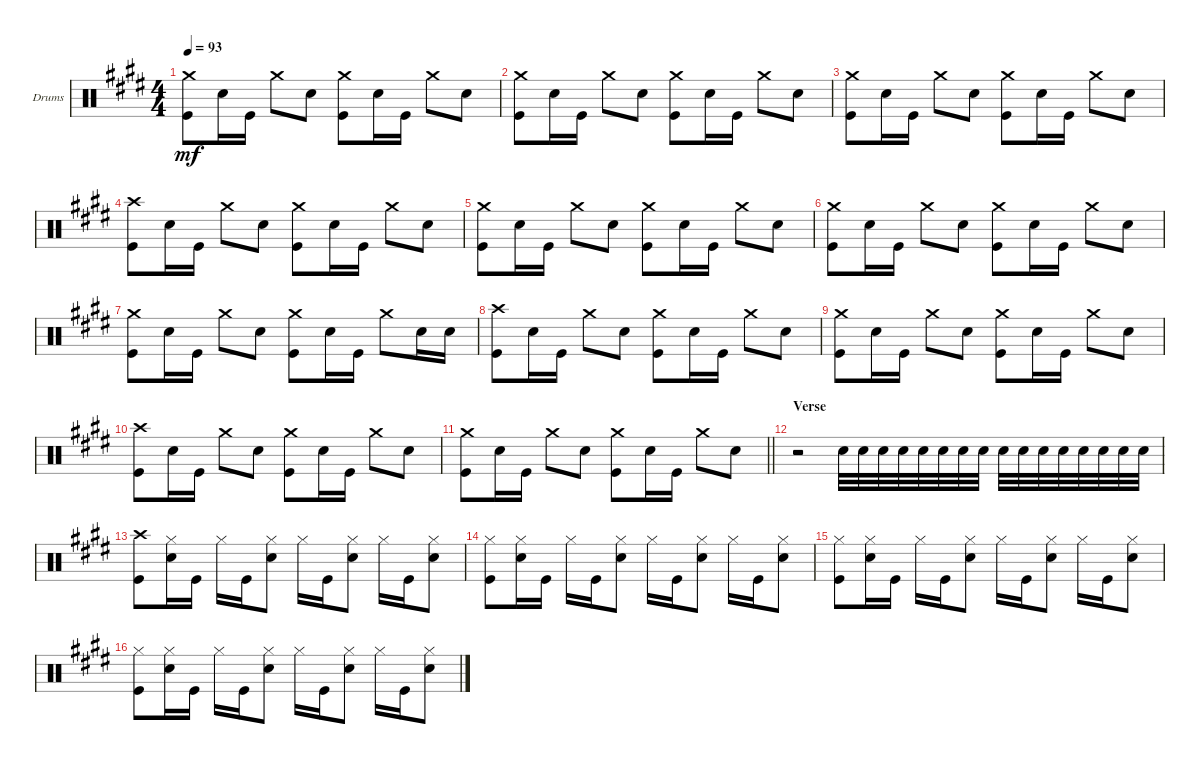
\defaultSystemsLayout 4
\bracketExtendMode groupsimilarinstruments
\firstSystemTrackNameOrientation horizontal
\otherSystemsTrackNameOrientation horizontal
\track ("Drumkit" "Drums") {instrument percussion}
\staff {score}
\articulation defaults
\ts (4 4)
\tempo 93
\clef neutral
\ks e
("Kick (hit)" "Crash medium (hit)").8{dy mf} "Snare (hit) 2".16 "Kick (hit)".16 "Crash medium (hit)".8 "Snare (hit) 2".8 ("Kick (hit)" "Crash medium (hit)").8 "Snare (hit) 2".16 "Kick (hit)".16 "Crash medium (hit)".8 "Snare (hit) 2".8 |
("Kick (hit)" "Crash medium (hit)").8 "Snare (hit) 2".16 "Kick (hit)".16 "Crash medium (hit)".8 "Snare (hit) 2".8 ("Kick (hit)" "Crash medium (hit)").8 "Snare (hit) 2".16 "Kick (hit)".16 "Crash medium (hit)".8 "Snare (hit) 2".8 |
("Kick (hit)" "Crash medium (hit)").8 "Snare (hit) 2".16 "Kick (hit)".16 "Crash medium (hit)".8 "Snare (hit) 2".8 ("Kick (hit)" "Crash medium (hit)").8 "Snare (hit) 2".16 "Kick (hit)".16 "Crash medium (hit)".8 "Snare (hit) 2".8 |
("Crash high (hit)" "Kick (hit)").8 "Snare (hit) 2".16 "Kick (hit)".16 "Crash medium (hit)".8 "Snare (hit) 2".8 ("Kick (hit)" "Crash medium (hit)").8 "Snare (hit) 2".16 "Kick (hit)".16 "Crash medium (hit)".8 "Snare (hit) 2".8 |
("Kick (hit)" "Crash medium (hit)").8 "Snare (hit) 2".16 "Kick (hit)".16 "Crash medium (hit)".8 "Snare (hit) 2".8 ("Kick (hit)" "Crash medium (hit)").8 "Snare (hit) 2".16 "Kick (hit)".16 "Crash medium (hit)".8 "Snare (hit) 2".8 |
("Kick (hit)" "Crash medium (hit)").8 "Snare (hit) 2".16 "Kick (hit)".16 "Crash medium (hit)".8 "Snare (hit) 2".8 ("Kick (hit)" "Crash medium (hit)").8 "Snare (hit) 2".16 "Kick (hit)".16 "Crash medium (hit)".8 "Snare (hit) 2".8 |
("Kick (hit)" "Crash medium (hit)").8 "Snare (hit) 2".16 "Kick (hit)".16 "Crash medium (hit)".8 "Snare (hit) 2".8 ("Kick (hit)" "Crash medium (hit)").8 "Snare (hit) 2".16 "Kick (hit)".16 "Crash medium (hit)".8 "Snare (hit) 2".16 "Snare (hit) 2".16 |
("Crash high (hit)" "Kick (hit)").8 "Snare (hit) 2".16 "Kick (hit)".16 "Crash medium (hit)".8 "Snare (hit) 2".8 ("Kick (hit)" "Crash medium (hit)").8 "Snare (hit) 2".16 "Kick (hit)".16 "Crash medium (hit)".8 "Snare (hit) 2".8 |
("Kick (hit)" "Crash medium (hit)").8 "Snare (hit) 2".16 "Kick (hit)".16 "Crash medium (hit)".8 "Snare (hit) 2".8 ("Kick (hit)" "Crash medium (hit)").8 "Snare (hit) 2".16 "Kick (hit)".16 "Crash medium (hit)".8 "Snare (hit) 2".8 |
("Crash high (hit)" "Kick (hit)").8 "Snare (hit) 2".16 "Kick (hit)".16 "Crash medium (hit)".8 "Snare (hit) 2".8 ("Kick (hit)" "Crash medium (hit)").8 "Snare (hit) 2".16 "Kick (hit)".16 "Crash medium (hit)".8 "Snare (hit) 2".8 |
\barLineRight lightlight
("Kick (hit)" "Crash medium (hit)").8 "Snare (hit) 2".16 "Kick (hit)".16 "Crash medium (hit)".8 "Snare (hit) 2".8 ("Kick (hit)" "Crash medium (hit)").8 "Snare (hit) 2".16 "Kick (hit)".16 "Crash medium (hit)".8 "Snare (hit) 2".8 |
\section ("" "Verse")
r.2 "Snare (hit) 2".32 "Snare (hit) 2".32 "Snare (hit) 2".32 "Snare (hit) 2".32 "Snare (hit) 2".32 "Snare (hit) 2".32 "Snare (hit) 2".32 "Snare (hit) 2".32 "Snare (hit) 2".32 "Snare (hit) 2".32 "Snare (hit) 2".32 "Snare (hit) 2".32 "Snare (hit) 2".32 "Snare (hit) 2".32 "Snare (hit) 2".32 "Snare (hit) 2".32 |
("Kick (hit)" "Crash high (hit)").8 ("Snare (hit) 2" "Hi-Hat (closed)").16 "Kick (hit)".16 "Hi-Hat (closed)".16 "Kick (hit)".16 ("Snare (hit) 2" "Hi-Hat (closed)").8 "Hi-Hat (closed)".16 "Kick (hit)".16 ("Snare (hit) 2" "Hi-Hat (closed)").8 "Hi-Hat (closed)".16 "Kick (hit)".16 ("Snare (hit) 2" "Hi-Hat (closed)").8 |
("Kick (hit)" "Hi-Hat (closed)").8 ("Snare (hit) 2" "Hi-Hat (closed)").16 "Kick (hit)".16 "Hi-Hat (closed)".16 "Kick (hit)".16 ("Snare (hit) 2" "Hi-Hat (closed)").8 "Hi-Hat (closed)".16 "Kick (hit)".16 ("Snare (hit) 2" "Hi-Hat (closed)").8 "Hi-Hat (closed)".16 "Kick (hit)".16 ("Snare (hit) 2" "Hi-Hat (closed)").8 |
("Kick (hit)" "Hi-Hat (closed)").8 ("Snare (hit) 2" "Hi-Hat (closed)").16 "Kick (hit)".16 "Hi-Hat (closed)".16 "Kick (hit)".16 ("Snare (hit) 2" "Hi-Hat (closed)").8 "Hi-Hat (closed)".16 "Kick (hit)".16 ("Snare (hit) 2" "Hi-Hat (closed)").8 "Hi-Hat (closed)".16 "Kick (hit)".16 ("Snare (hit) 2" "Hi-Hat (closed)").8 |
("Kick (hit)" "Hi-Hat (closed)").8 ("Snare (hit) 2" "Hi-Hat (closed)").16 "Kick (hit)".16 "Hi-Hat (closed)".16 "Kick (hit)".16 ("Snare (hit) 2" "Hi-Hat (closed)").8 "Hi-Hat (closed)".16 "Kick (hit)".16 ("Snare (hit) 2" "Hi-Hat (closed)").8 "Hi-Hat (closed)".16 "Kick (hit)".16 ("Snare (hit) 2" "Hi-Hat (closed)").8
